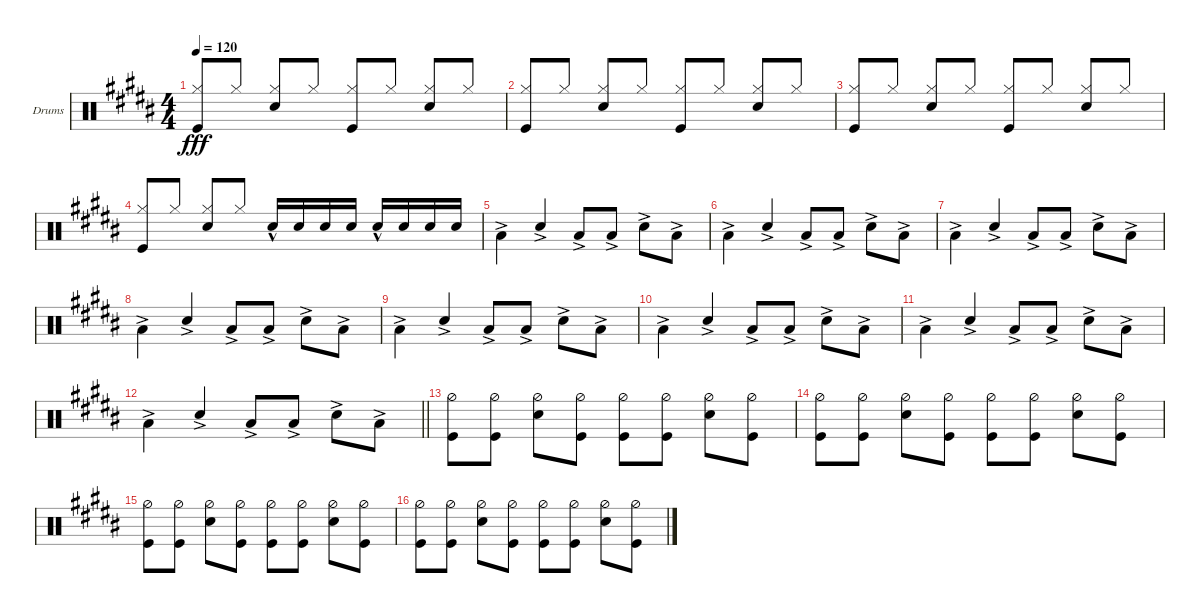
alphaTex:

\defaultSystemsLayout 4
\bracketExtendMode groupsimilarinstruments
\firstSystemTrackNameOrientation horizontal
\otherSystemsTrackNameOrientation horizontal
\track ("Drumkit" "Drums") {instrument percussion}
\staff {score}
\articulation defaults
\ts (4 4)
\tempo 120
\clef neutral
\ks b
("Hi-Hat (closed)" "Kick (hit)").8{dy fff beam invert} "Hi-Hat (closed)".8 ("Hi-Hat (closed)" "Snare (hit) 2").8{beam invert} "Hi-Hat (closed)".8 ("Hi-Hat (closed)" "Kick (hit)").8{beam invert} "Hi-Hat (closed)".8 ("Hi-Hat (closed)" "Snare (hit) 2").8{beam invert} "Hi-Hat (closed)".8 |
("Hi-Hat (closed)" "Kick (hit)").8{beam invert} "Hi-Hat (closed)".8 ("Hi-Hat (closed)" "Snare (hit) 2").8{beam invert} "Hi-Hat (closed)".8 ("Hi-Hat (closed)" "Kick (hit)").8{beam invert} "Hi-Hat (closed)".8 ("Hi-Hat (closed)" "Snare (hit) 2").8{beam invert} "Hi-Hat (closed)".8 |
("Hi-Hat (closed)" "Kick (hit)").8{beam invert} "Hi-Hat (closed)".8 ("Hi-Hat (closed)" "Snare (hit) 2").8{beam invert} "Hi-Hat (closed)".8 ("Hi-Hat (closed)" "Kick (hit)").8{beam invert} "Hi-Hat (closed)".8 ("Hi-Hat (closed)" "Snare (hit) 2").8{beam invert} "Hi-Hat (closed)".8 |
("Hi-Hat (closed)" "Kick (hit)").8{beam invert} "Hi-Hat (closed)".8 ("Hi-Hat (closed)" "Snare (hit) 2").8{beam invert} "Hi-Hat (closed)".8 "Snare (hit) 2"{hac}.16{beam invert} "Snare (hit) 2".16 "Snare (hit) 2".16 "Snare (hit) 2".16 "Snare (hit) 2"{hac}.16{beam invert} "Snare (hit) 2".16 "Snare (hit) 2".16 "Snare (hit) 2".16 |
"Low Tom (hit)"{ac}.4 "Snare (hit) 2"{ac}.4{beam invert} "Low Tom (hit)"{ac}.8 "Low Tom (hit)"{ac}.8 "Snare (hit) 2"{ac}.8 "Low Tom (hit)"{ac}.8 |
"Low Tom (hit)"{ac}.4 "Snare (hit) 2"{ac}.4{beam invert} "Low Tom (hit)"{ac}.8 "Low Tom (hit)"{ac}.8 "Snare (hit) 2"{ac}.8 "Low Tom (hit)"{ac}.8 |
"Low Tom (hit)"{ac}.4 "Snare (hit) 2"{ac}.4{beam invert} "Low Tom (hit)"{ac}.8 "Low Tom (hit)"{ac}.8 "Snare (hit) 2"{ac}.8 "Low Tom (hit)"{ac}.8 |
"Low Tom (hit)"{ac}.4 "Snare (hit) 2"{ac}.4{beam invert} "Low Tom (hit)"{ac}.8 "Low Tom (hit)"{ac}.8 "Snare (hit) 2"{ac}.8 "Low Tom (hit)"{ac}.8 |
"Low Tom (hit)"{ac}.4 "Snare (hit) 2"{ac}.4{beam invert} "Low Tom (hit)"{ac}.8 "Low Tom (hit)"{ac}.8 "Snare (hit) 2"{ac}.8 "Low Tom (hit)"{ac}.8 |
"Low Tom (hit)"{ac}.4 "Snare (hit) 2"{ac}.4{beam invert} "Low Tom (hit)"{ac}.8 "Low Tom (hit)"{ac}.8 "Snare (hit) 2"{ac}.8 "Low Tom (hit)"{ac}.8 |
"Low Tom (hit)"{ac}.4 "Snare (hit) 2"{ac}.4{beam invert} "Low Tom (hit)"{ac}.8 "Low Tom (hit)"{ac}.8 "Snare (hit) 2"{ac}.8 "Low Tom (hit)"{ac}.8 |
\barLineRight lightlight "Low Tom (hit)"{ac}.4 "Snare (hit) 2"{ac}.4{beam invert} "Low Tom (hit)"{ac}.8 "Low Tom (hit)"{ac}.8 "Snare (hit) 2"{ac}.8 "Low Tom (hit)"{ac}.8
|
("Kick (hit)" "Hi-Hat (half)").8 ("Kick (hit)" "Hi-Hat (half)").8 ("Snare (hit) 2" "Hi-Hat (half)").8 ("Kick (hit)" "Hi-Hat (half)").8 ("Kick (hit)" "Hi-Hat (half)").8 ("Kick (hit)" "Hi-Hat (half)").8 ("Snare (hit) 2" "Hi-Hat (half)").8 ("Kick (hit)" "Hi-Hat (half)").8 |
("Kick (hit)" "Hi-Hat (half)").8 ("Kick (hit)" "Hi-Hat (half)").8 ("Snare (hit) 2" "Hi-Hat (half)").8 ("Kick (hit)" "Hi-Hat (half)").8 ("Kick (hit)" "Hi-Hat (half)").8 ("Kick (hit)" "Hi-Hat (half)").8 ("Snare (hit) 2" "Hi-Hat (half)").8 ("Kick (hit)" "Hi-Hat (half)").8 |
("Kick (hit)" "Hi-Hat (half)").8 ("Kick (hit)" "Hi-Hat (half)").8 ("Snare (hit) 2" "Hi-Hat (half)").8 ("Kick (hit)" "Hi-Hat (half)").8 ("Kick (hit)" "Hi-Hat (half)").8 ("Kick (hit)" "Hi-Hat (half)").8 ("Snare (hit) 2" "Hi-Hat (half)").8 ("Kick (hit)" "Hi-Hat (half)").8 |
("Kick (hit)" "Hi-Hat (half)").8 ("Kick (hit)" "Hi-Hat (half)").8 ("Snare (hit) 2" "Hi-Hat (half)").8 ("Kick (hit)" "Hi-Hat (half)").8 ("Kick (hit)" "Hi-Hat (half)").8 ("Kick (hit)" "Hi-Hat (half)").8 ("Snare (hit) 2" "Hi-Hat (half)").8 ("Kick (hit)" "Hi-Hat (half)").8
